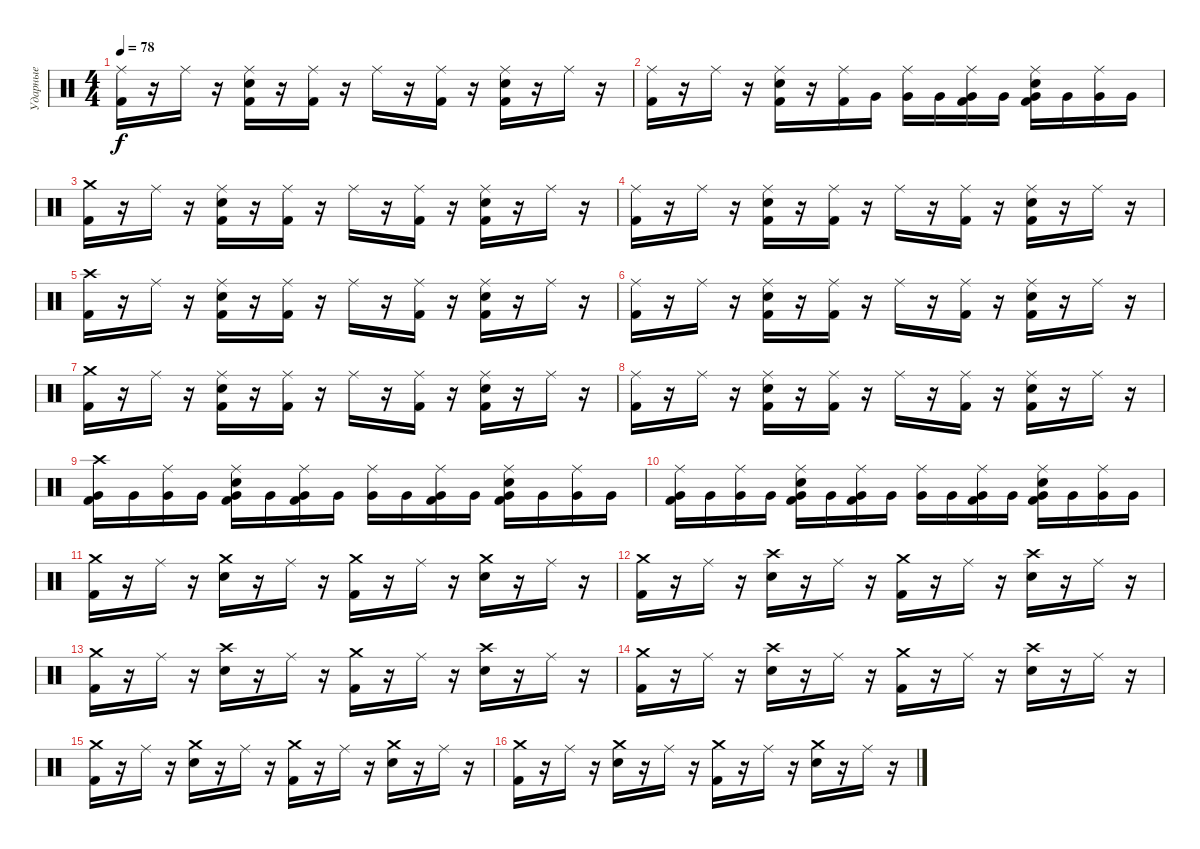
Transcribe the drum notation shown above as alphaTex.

\track ("Ударные" "Ударные") {instrument percussion}
\staff {score}
\articulation defaults
\ts (4 4)
\tempo 78
\clef neutral
\ks c
("Ride (middle)" "Kick (hit) 2").16{dy f} r.16 "Ride (middle)".16 r.16 ("Ride (middle)" "Electric Snare (hit)" "Kick (hit) 2").16 r.16 ("Ride (middle)" "Kick (hit) 2").16 r.16 "Ride (middle)".16 r.16 ("Ride (middle)" "Kick (hit) 2").16 r.16 ("Ride (middle)" "Electric Snare (hit)" "Kick (hit) 2").16 r.16 "Ride (middle)".16 r.16 |
("Ride (middle)" "Kick (hit) 2").16 r.16 "Ride (middle)".16 r.16 ("Ride (middle)" "Electric Snare (hit)" "Kick (hit) 2").16 r.16 ("Ride (middle)" "Kick (hit) 2").16 "Very Low Tom (hit)".16 ("Ride (middle)" "Very Low Tom (hit)").16 "Very Low Tom (hit)".16 ("Ride (middle)" "Very Low Tom (hit)" "Kick (hit) 2").16 "Very Low Tom (hit)".16 ("Ride (middle)" "Electric Snare (hit)" "Very Low Tom (hit)" "Kick (hit) 2").16 "Very Low Tom (hit)".16 ("Ride (middle)" "Very Low Tom (hit)").16 "Very Low Tom (hit)".16 |
("Crash medium (hit)" "Kick (hit) 2").16 r.16 "Ride (middle)".16 r.16 ("Ride (middle)" "Electric Snare (hit)" "Kick (hit) 2").16 r.16 ("Ride (middle)" "Kick (hit) 2").16 r.16 "Ride (middle)".16 r.16 ("Ride (middle)" "Kick (hit) 2").16 r.16 ("Ride (middle)" "Electric Snare (hit)" "Kick (hit) 2").16 r.16 "Ride (middle)".16 r.16 |
("Ride (middle)" "Kick (hit) 2").16 r.16 "Ride (middle)".16 r.16 ("Ride (middle)" "Electric Snare (hit)" "Kick (hit) 2").16 r.16 ("Ride (middle)" "Kick (hit) 2").16 r.16 "Ride (middle)".16 r.16 ("Ride (middle)" "Kick (hit) 2").16 r.16 ("Ride (middle)" "Electric Snare (hit)" "Kick (hit) 2").16 r.16 "Ride (middle)".16 r.16 |
("Crash high (hit)" "Kick (hit) 2").16 r.16 "Ride (middle)".16 r.16 ("Ride (middle)" "Electric Snare (hit)" "Kick (hit) 2").16 r.16 ("Ride (middle)" "Kick (hit) 2").16 r.16 "Ride (middle)".16 r.16 ("Ride (middle)" "Kick (hit) 2").16 r.16 ("Ride (middle)" "Electric Snare (hit)" "Kick (hit) 2").16 r.16 "Ride (middle)".16 r.16 |
("Ride (middle)" "Kick (hit) 2").16 r.16 "Ride (middle)".16 r.16 ("Ride (middle)" "Electric Snare (hit)" "Kick (hit) 2").16 r.16 ("Ride (middle)" "Kick (hit) 2").16 r.16 "Ride (middle)".16 r.16 ("Ride (middle)" "Kick (hit) 2").16 r.16 ("Ride (middle)" "Electric Snare (hit)" "Kick (hit) 2").16 r.16 "Ride (middle)".16 r.16 |
("Crash medium (hit)" "Kick (hit) 2").16 r.16 "Ride (middle)".16 r.16 ("Ride (middle)" "Electric Snare (hit)" "Kick (hit) 2").16 r.16 ("Ride (middle)" "Kick (hit) 2").16 r.16 "Ride (middle)".16 r.16 ("Ride (middle)" "Kick (hit) 2").16 r.16 ("Ride (middle)" "Electric Snare (hit)" "Kick (hit) 2").16 r.16 "Ride (middle)".16 r.16 |
("Ride (middle)" "Kick (hit) 2").16 r.16 "Ride (middle)".16 r.16 ("Ride (middle)" "Electric Snare (hit)" "Kick (hit) 2").16 r.16 ("Ride (middle)" "Kick (hit) 2").16 r.16 "Ride (middle)".16 r.16 ("Ride (middle)" "Kick (hit) 2").16 r.16 ("Ride (middle)" "Electric Snare (hit)" "Kick (hit) 2").16 r.16 "Ride (middle)".16 r.16 |
("Crash high (hit)" "Very Low Tom (hit)" "Kick (hit) 2").16 "Very Low Tom (hit)".16 ("Ride (middle)" "Very Low Tom (hit)").16 "Very Low Tom (hit)".16 ("Ride (middle)" "Electric Snare (hit)" "Very Low Tom (hit)" "Kick (hit) 2").16 "Very Low Tom (hit)".16 ("Ride (middle)" "Very Low Tom (hit)" "Kick (hit) 2").16 "Very Low Tom (hit)".16 ("Ride (middle)" "Very Low Tom (hit)").16 "Very Low Tom (hit)".16 ("Ride (middle)" "Very Low Tom (hit)" "Kick (hit) 2").16 "Very Low Tom (hit)".16 ("Ride (middle)" "Electric Snare (hit)" "Very Low Tom (hit)" "Kick (hit) 2").16 "Very Low Tom (hit)".16 ("Ride (middle)" "Very Low Tom (hit)").16 "Very Low Tom (hit)".16 |
("Ride (middle)" "Very Low Tom (hit)" "Kick (hit) 2").16 "Very Low Tom (hit)".16 ("Ride (middle)" "Very Low Tom (hit)").16 "Very Low Tom (hit)".16 ("Ride (middle)" "Electric Snare (hit)" "Very Low Tom (hit)" "Kick (hit) 2").16 "Very Low Tom (hit)".16 ("Ride (middle)" "Very Low Tom (hit)" "Kick (hit) 2").16 "Very Low Tom (hit)".16 ("Ride (middle)" "Very Low Tom (hit)").16 "Very Low Tom (hit)".16 ("Ride (middle)" "Very Low Tom (hit)" "Kick (hit) 2").16 "Very Low Tom (hit)".16 ("Ride (middle)" "Electric Snare (hit)" "Very Low Tom (hit)" "Kick (hit) 2").16 "Very Low Tom (hit)".16 ("Ride (middle)" "Very Low Tom (hit)").16 "Very Low Tom (hit)".16 |
("Crash medium (hit)" "Kick (hit) 2").16 r.16 "Ride (middle)".16 r.16 ("Crash medium (hit)" "Electric Snare (hit)").16 r.16 "Ride (middle)".16 r.16 ("Crash medium (hit)" "Kick (hit) 2").16 r.16 "Ride (middle)".16 r.16 ("Crash medium (hit)" "Electric Snare (hit)").16 r.16 "Ride (middle)".16 r.16 |
("Crash medium (hit)" "Kick (hit) 2").16 r.16 "Ride (middle)".16 r.16 ("Crash high (hit)" "Electric Snare (hit)").16 r.16 "Ride (middle)".16 r.16 ("Crash medium (hit)" "Kick (hit) 2").16 r.16 "Ride (middle)".16 r.16 ("Crash high (hit)" "Electric Snare (hit)").16 r.16 "Ride (middle)".16 r.16 |
("Crash medium (hit)" "Kick (hit) 2").16 r.16 "Ride (middle)".16 r.16 ("Crash high (hit)" "Electric Snare (hit)").16 r.16 "Ride (middle)".16 r.16 ("Crash medium (hit)" "Kick (hit) 2").16 r.16 "Ride (middle)".16 r.16 ("Crash high (hit)" "Electric Snare (hit)").16 r.16 "Ride (middle)".16 r.16 |
("Crash medium (hit)" "Kick (hit) 2").16 r.16 "Ride (middle)".16 r.16 ("Crash high (hit)" "Electric Snare (hit)").16 r.16 "Ride (middle)".16 r.16 ("Crash medium (hit)" "Kick (hit) 2").16 r.16 "Ride (middle)".16 r.16 ("Crash high (hit)" "Electric Snare (hit)").16 r.16 "Ride (middle)".16 r.16 |
("Crash medium (hit)" "Kick (hit) 2").16 r.16 "Ride (middle)".16 r.16 ("Crash medium (hit)" "Electric Snare (hit)").16 r.16 "Ride (middle)".16 r.16 ("Crash medium (hit)" "Kick (hit) 2").16 r.16 "Ride (middle)".16 r.16 ("Crash medium (hit)" "Electric Snare (hit)").16 r.16 "Ride (middle)".16 r.16 |
("Crash medium (hit)" "Kick (hit) 2").16 r.16 "Ride (middle)".16 r.16 ("Crash medium (hit)" "Electric Snare (hit)").16 r.16 "Ride (middle)".16 r.16 ("Crash medium (hit)" "Kick (hit) 2").16 r.16 "Ride (middle)".16 r.16 ("Crash medium (hit)" "Electric Snare (hit)").16 r.16 "Ride (middle)".16 r.16
